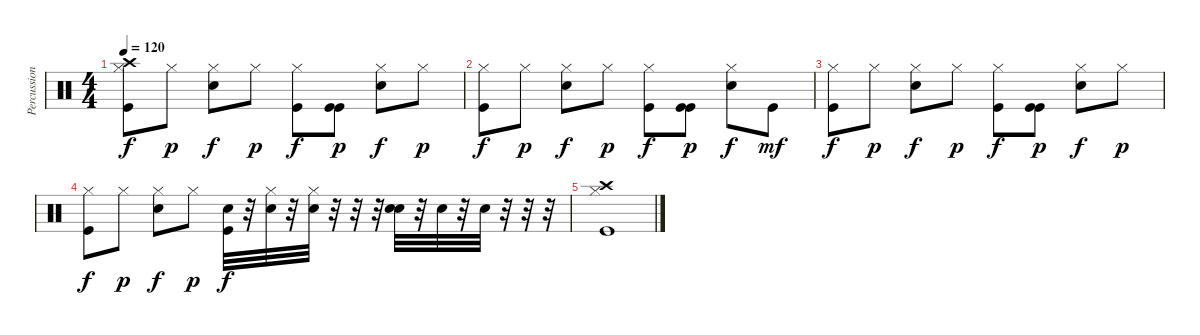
\track ("Percussions" "Percussion") {instrument percussion}
\staff {score}
\articulation defaults
\ts (4 4)
\tempo 120
\clef neutral
\ks c
("Kick (hit)" "Hi-Hat (closed)" "Crash high (hit)").8{dy f} "Hi-Hat (closed)".8{dy p} ("Snare (hit) 2" "Hi-Hat (closed)").8{dy f} "Hi-Hat (closed)".8{dy p} ("Kick (hit)" "Hi-Hat (closed)").8{dy f} ("Kick (hit)" "Kick (hit)").8{dy p} ("Snare (hit) 2" "Hi-Hat (closed)").8{dy f} "Hi-Hat (closed)".8{dy p} |
("Kick (hit)" "Hi-Hat (closed)").8{dy f} "Hi-Hat (closed)".8{dy p} ("Snare (hit) 2" "Hi-Hat (closed)").8{dy f} "Hi-Hat (closed)".8{dy p} ("Kick (hit)" "Hi-Hat (closed)").8{dy f} ("Kick (hit)" "Kick (hit)").8{dy p} ("Snare (hit) 2" "Hi-Hat (closed)").8{dy f} "Kick (hit)".8{dy mf} |
("Kick (hit)" "Hi-Hat (closed)").8{dy f} "Hi-Hat (closed)".8{dy p} ("Snare (hit) 2" "Hi-Hat (closed)").8{dy f} "Hi-Hat (closed)".8{dy p} ("Kick (hit)" "Hi-Hat (closed)").8{dy f} ("Kick (hit)" "Kick (hit)").8{dy p} ("Snare (hit) 2" "Hi-Hat (closed)").8{dy f} "Hi-Hat (closed)".8{dy p} |
("Kick (hit)" "Hi-Hat (closed)").8{dy f} "Hi-Hat (closed)".8{dy p} ("Snare (hit) 2" "Hi-Hat (closed)").8{dy f} "Hi-Hat (closed)".8{dy p} ("Electric Snare (hit)" "Kick (hit)").32{dy f} r.32 ("Electric Snare (hit)" "Hi-Hat (closed)").32 r.32 ("Electric Snare (hit)" "Hi-Hat (closed)").32 r.32 r.32 r.32 ("Electric Snare (hit)" "Snare (hit) 2").32 r.32 "Electric Snare (hit)".32 r.32 "Electric Snare (hit)".32 r.32 r.32 r.32 |
("Kick (hit)" "Crash high (hit)" "Hi-Hat (closed)").1
